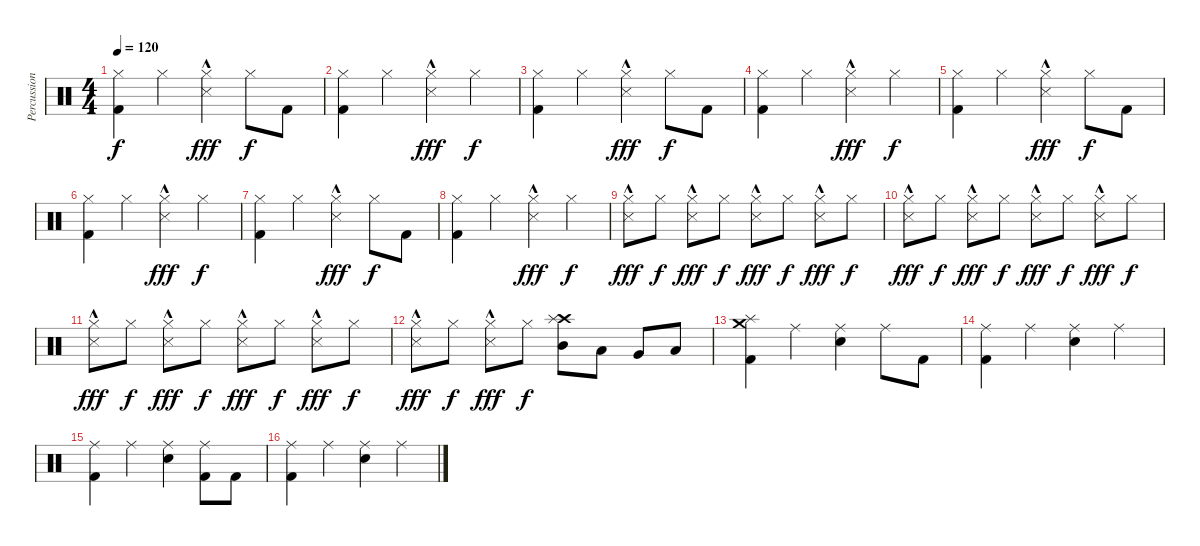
\track ("Percussion" "Percussion") {instrument percussion}
\staff {score}
\articulation defaults
\ts (4 4)
\tempo 120
\clef neutral
\ks c
("Hi-Hat (closed)" "Kick (hit) 2").4{dy f} "Hi-Hat (closed)".4 ("Hi-Hat (closed)" "Snare (side stick) 3"{hac}).4{dy fff} "Hi-Hat (closed)".8{dy f} "Kick (hit) 2".8 |
("Kick (hit) 2" "Hi-Hat (closed)").4 "Hi-Hat (closed)".4 ("Hi-Hat (closed)" "Snare (side stick) 3"{hac}).4{dy fff} "Hi-Hat (closed)".4{dy f} |
("Hi-Hat (closed)" "Kick (hit) 2").4 "Hi-Hat (closed)".4 ("Hi-Hat (closed)" "Snare (side stick) 3"{hac}).4{dy fff} "Hi-Hat (closed)".8{dy f} "Kick (hit) 2".8 |
("Kick (hit) 2" "Hi-Hat (closed)").4 "Hi-Hat (closed)".4 ("Hi-Hat (closed)" "Snare (side stick) 3"{hac}).4{dy fff} "Hi-Hat (closed)".4{dy f} |
("Hi-Hat (closed)" "Kick (hit) 2").4 "Hi-Hat (closed)".4 ("Hi-Hat (closed)" "Snare (side stick) 3"{hac}).4{dy fff} "Hi-Hat (closed)".8{dy f} "Kick (hit) 2".8 |
("Kick (hit) 2" "Hi-Hat (closed)").4 "Hi-Hat (closed)".4 ("Hi-Hat (closed)" "Snare (side stick) 3"{hac}).4{dy fff} "Hi-Hat (closed)".4{dy f} |
("Hi-Hat (closed)" "Kick (hit) 2").4 "Hi-Hat (closed)".4 ("Hi-Hat (closed)" "Snare (side stick) 3"{hac}).4{dy fff} "Hi-Hat (closed)".8{dy f} "Kick (hit) 2".8 |
("Kick (hit) 2" "Hi-Hat (closed)").4 "Hi-Hat (closed)".4 ("Hi-Hat (closed)" "Snare (side stick) 3"{hac}).4{dy fff} "Hi-Hat (closed)".4{dy f} |
("Hi-Hat (closed)" "Snare (side stick) 3"{hac}).8{dy fff} "Hi-Hat (closed)".8{dy f} ("Snare (side stick) 3"{hac} "Hi-Hat (closed)").8{dy fff} "Hi-Hat (closed)".8{dy f} ("Snare (side stick) 3"{hac} "Hi-Hat (closed)").8{dy fff} "Hi-Hat (closed)".8{dy f} ("Snare (side stick) 3"{hac} "Hi-Hat (closed)").8{dy fff} "Hi-Hat (closed)".8{dy f} |
("Snare (side stick) 3"{hac} "Hi-Hat (closed)").8{dy fff} "Hi-Hat (closed)".8{dy f} ("Snare (side stick) 3"{hac} "Hi-Hat (closed)").8{dy fff} "Hi-Hat (closed)".8{dy f} ("Snare (side stick) 3"{hac} "Hi-Hat (closed)").8{dy fff} "Hi-Hat (closed)".8{dy f} ("Snare (side stick) 3"{hac} "Hi-Hat (closed)").8{dy fff} "Hi-Hat (closed)".8{dy f} |
("Snare (side stick) 3"{hac} "Hi-Hat (closed)").8{dy fff} "Hi-Hat (closed)".8{dy f} ("Snare (side stick) 3"{hac} "Hi-Hat (closed)").8{dy fff} "Hi-Hat (closed)".8{dy f} ("Snare (side stick) 3"{hac} "Hi-Hat (closed)").8{dy fff} "Hi-Hat (closed)".8{dy f} ("Snare (side stick) 3"{hac} "Hi-Hat (closed)").8{dy fff} "Hi-Hat (closed)".8{dy f} |
("Snare (side stick) 3"{hac} "Hi-Hat (closed)").8{dy fff} "Hi-Hat (closed)".8{dy f} ("Snare (side stick) 3"{hac} "Hi-Hat (closed)").8{dy fff} "Hi-Hat (closed)".8{dy f} ("Mid Tom (hit)" "Crash high (hit)" "Splash (hit)").8 "Low Tom (hit)".8 "Very Low Tom (hit)".8 "Low Floor Tom (hit)".8 |
("Crash medium (hit)" "Kick (hit) 2" "Splash (hit)").4 "Ride (middle)".4 ("Ride (middle)" "Electric Snare (hit)").4 "Ride (middle)".8 "Kick (hit) 2".8 |
("Ride (middle)" "Kick (hit) 2").4 "Ride (middle)".4 ("Ride (middle)" "Electric Snare (hit)").4 "Ride (middle)".4 |
("Ride (middle)" "Kick (hit) 2").4 "Ride (middle)".4 ("Ride (middle)" "Electric Snare (hit)").4 ("Ride (middle)" "Kick (hit) 2").8 "Kick (hit) 2".8 |
("Kick (hit) 2" "Ride (middle)").4 "Ride (middle)".4 ("Ride (middle)" "Electric Snare (hit)").4 "Ride (middle)".4
